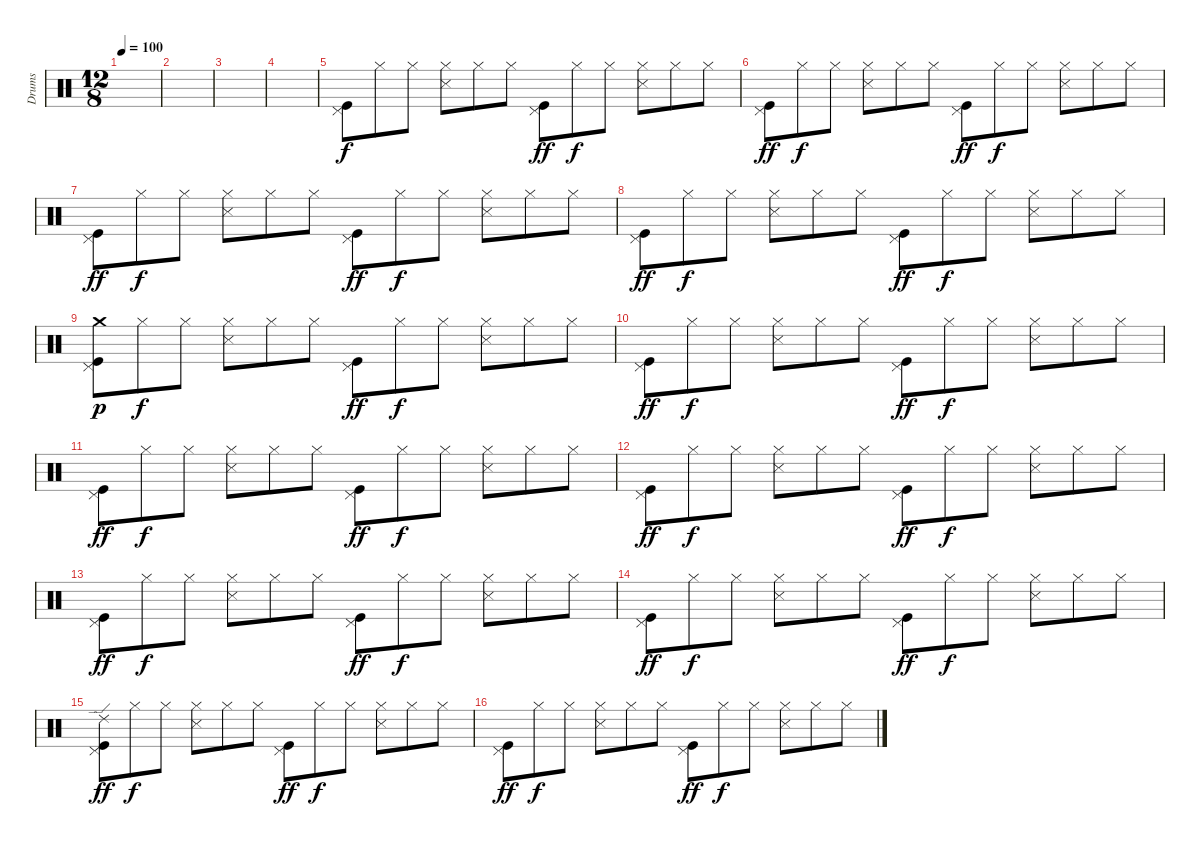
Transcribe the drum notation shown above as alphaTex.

\track ("Drums" "Drums") {instrument percussion}
\staff {score}
\articulation defaults
\ts (12 8)
\tempo 100
\clef neutral
\ks c
|
|
|
|
("Pedal Hi-Hat (hit)" "Kick (hit)").8 "Hi-Hat (closed)".8{dy f} "Hi-Hat (closed)".8 ("Hi-Hat (closed)" "Snare (side stick) 3").8 "Hi-Hat (closed)".8 "Hi-Hat (closed)".8 ("Pedal Hi-Hat (hit)" "Kick (hit)").8{dy ff} "Hi-Hat (closed)".8{dy f} "Hi-Hat (closed)".8 ("Hi-Hat (closed)" "Snare (side stick) 3").8 "Hi-Hat (closed)".8 "Hi-Hat (closed)".8 |
("Pedal Hi-Hat (hit)" "Kick (hit)").8{dy ff} "Hi-Hat (closed)".8{dy f} "Hi-Hat (closed)".8 ("Hi-Hat (closed)" "Snare (side stick) 3").8 "Hi-Hat (closed)".8 "Hi-Hat (closed)".8 ("Pedal Hi-Hat (hit)" "Kick (hit)").8{dy ff} "Hi-Hat (closed)".8{dy f} "Hi-Hat (closed)".8 ("Hi-Hat (closed)" "Snare (side stick) 3").8 "Hi-Hat (closed)".8 "Hi-Hat (closed)".8 |
("Pedal Hi-Hat (hit)" "Kick (hit)").8{dy ff} "Hi-Hat (closed)".8{dy f} "Hi-Hat (closed)".8 ("Hi-Hat (closed)" "Snare (side stick) 3").8 "Hi-Hat (closed)".8 "Hi-Hat (closed)".8 ("Pedal Hi-Hat (hit)" "Kick (hit)").8{dy ff} "Hi-Hat (closed)".8{dy f} "Hi-Hat (closed)".8 ("Hi-Hat (closed)" "Snare (side stick) 3").8 "Hi-Hat (closed)".8 "Hi-Hat (closed)".8 |
("Pedal Hi-Hat (hit)" "Kick (hit)").8{dy ff} "Hi-Hat (closed)".8{dy f} "Hi-Hat (closed)".8 ("Hi-Hat (closed)" "Snare (side stick) 3").8 "Hi-Hat (closed)".8 "Hi-Hat (closed)".8 ("Pedal Hi-Hat (hit)" "Kick (hit)").8{dy ff} "Hi-Hat (closed)".8{dy f} "Hi-Hat (closed)".8 ("Hi-Hat (closed)" "Snare (side stick) 3").8 "Hi-Hat (closed)".8 "Hi-Hat (closed)".8 |
("Pedal Hi-Hat (hit)" "Crash medium (hit)" "Kick (hit)").8{dy p} "Hi-Hat (closed)".8{dy f} "Hi-Hat (closed)".8 ("Hi-Hat (closed)" "Snare (side stick) 3").8 "Hi-Hat (closed)".8 "Hi-Hat (closed)".8 ("Pedal Hi-Hat (hit)" "Kick (hit)").8{dy ff} "Hi-Hat (closed)".8{dy f} "Hi-Hat (closed)".8 ("Hi-Hat (closed)" "Snare (side stick) 3").8 "Hi-Hat (closed)".8 "Hi-Hat (closed)".8 |
("Pedal Hi-Hat (hit)" "Kick (hit)").8{dy ff} "Hi-Hat (closed)".8{dy f} "Hi-Hat (closed)".8 ("Hi-Hat (closed)" "Snare (side stick) 3").8 "Hi-Hat (closed)".8 "Hi-Hat (closed)".8 ("Pedal Hi-Hat (hit)" "Kick (hit)").8{dy ff} "Hi-Hat (closed)".8{dy f} "Hi-Hat (closed)".8 ("Hi-Hat (closed)" "Snare (side stick) 3").8 "Hi-Hat (closed)".8 "Hi-Hat (closed)".8 |
("Pedal Hi-Hat (hit)" "Kick (hit)").8{dy ff} "Hi-Hat (closed)".8{dy f} "Hi-Hat (closed)".8 ("Hi-Hat (closed)" "Snare (side stick) 3").8 "Hi-Hat (closed)".8 "Hi-Hat (closed)".8 ("Pedal Hi-Hat (hit)" "Kick (hit)").8{dy ff} "Hi-Hat (closed)".8{dy f} "Hi-Hat (closed)".8 ("Hi-Hat (closed)" "Snare (side stick) 3").8 "Hi-Hat (closed)".8 "Hi-Hat (closed)".8 |
("Pedal Hi-Hat (hit)" "Kick (hit)").8{dy ff} "Hi-Hat (closed)".8{dy f} "Hi-Hat (closed)".8 ("Hi-Hat (closed)" "Snare (side stick) 3").8 "Hi-Hat (closed)".8 "Hi-Hat (closed)".8 ("Pedal Hi-Hat (hit)" "Kick (hit)").8{dy ff} "Hi-Hat (closed)".8{dy f} "Hi-Hat (closed)".8 ("Hi-Hat (closed)" "Snare (side stick) 3").8 "Hi-Hat (closed)".8 "Hi-Hat (closed)".8 |
("Pedal Hi-Hat (hit)" "Kick (hit)").8{dy ff} "Hi-Hat (closed)".8{dy f} "Hi-Hat (closed)".8 ("Hi-Hat (closed)" "Snare (side stick) 3").8 "Hi-Hat (closed)".8 "Hi-Hat (closed)".8 ("Pedal Hi-Hat (hit)" "Kick (hit)").8{dy ff} "Hi-Hat (closed)".8{dy f} "Hi-Hat (closed)".8 ("Hi-Hat (closed)" "Snare (side stick) 3").8 "Hi-Hat (closed)".8 "Hi-Hat (closed)".8 |
("Pedal Hi-Hat (hit)" "Kick (hit)").8{dy ff} "Hi-Hat (closed)".8{dy f} "Hi-Hat (closed)".8 ("Hi-Hat (closed)" "Snare (side stick) 3").8 "Hi-Hat (closed)".8 "Hi-Hat (closed)".8 ("Pedal Hi-Hat (hit)" "Kick (hit)").8{dy ff} "Hi-Hat (closed)".8{dy f} "Hi-Hat (closed)".8 ("Hi-Hat (closed)" "Snare (side stick) 3").8 "Hi-Hat (closed)".8 "Hi-Hat (closed)".8 |
("Pedal Hi-Hat (hit)" "Ride (edge) 2" "Kick (hit)").8{dy ff} "Hi-Hat (closed)".8{dy f} "Hi-Hat (closed)".8 ("Hi-Hat (closed)" "Snare (side stick) 3").8 "Hi-Hat (closed)".8 "Hi-Hat (closed)".8 ("Pedal Hi-Hat (hit)" "Kick (hit)").8{dy ff} "Hi-Hat (closed)".8{dy f} "Hi-Hat (closed)".8 ("Hi-Hat (closed)" "Snare (side stick) 3").8 "Hi-Hat (closed)".8 "Hi-Hat (closed)".8 |
("Pedal Hi-Hat (hit)" "Kick (hit)").8{dy ff} "Hi-Hat (closed)".8{dy f} "Hi-Hat (closed)".8 ("Hi-Hat (closed)" "Snare (side stick) 3").8 "Hi-Hat (closed)".8 "Hi-Hat (closed)".8 ("Pedal Hi-Hat (hit)" "Kick (hit)").8{dy ff} "Hi-Hat (closed)".8{dy f} "Hi-Hat (closed)".8 ("Hi-Hat (closed)" "Snare (side stick) 3").8 "Hi-Hat (closed)".8 "Hi-Hat (closed)".8
